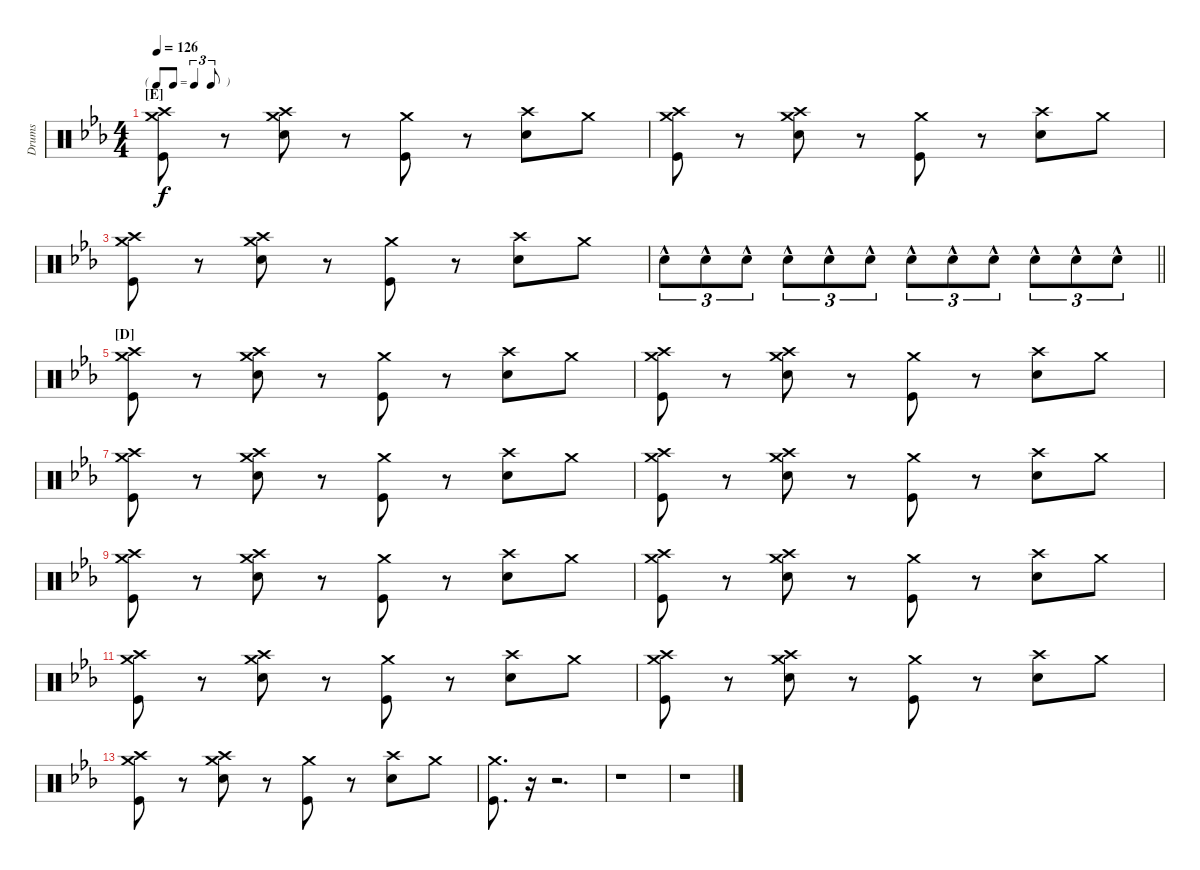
\bracketExtendMode nobrackets
\otherSystemsTrackNameOrientation horizontal
\defaultBarNumberDisplay FirstOfSystem
\track ("Drumkit" "Drums") {instrument percussion}
\staff {score}
\articulation defaults
\ts (4 4)
\tf triplet8th
\section ("E" "")
\tempo 126
\clef neutral
\ks cminor
("Kick (hit)" "Crash medium (hit)" "Crash high (hit)").8{dy f} r.8 ("Snare (hit) 2" "Crash medium (hit)" "Crash high (hit)").8 r.8 ("Kick (hit)" "Crash medium (hit)").8 r.8 ("Snare (hit) 2" "Crash high (hit)").8 "Crash medium (hit)".8 |
("Kick (hit)" "Crash medium (hit)" "Crash high (hit)").8 r.8 ("Snare (hit) 2" "Crash medium (hit)" "Crash high (hit)").8 r.8 ("Kick (hit)" "Crash medium (hit)").8 r.8 ("Snare (hit) 2" "Crash high (hit)").8 "Crash medium (hit)".8 |
("Kick (hit)" "Crash medium (hit)" "Crash high (hit)").8 r.8 ("Snare (hit) 2" "Crash medium (hit)" "Crash high (hit)").8 r.8 ("Kick (hit)" "Crash medium (hit)").8 r.8 ("Snare (hit) 2" "Crash high (hit)").8 "Crash medium (hit)".8 |
\barLineRight lightlight "Snare (hit) 2"{hac}.8{tu (3 2)} "Snare (hit) 2"{hac}.8{tu (3 2)} "Snare (hit) 2"{hac}.8{tu (3 2)} "Snare (hit) 2"{hac}.8{tu (3 2)} "Snare (hit) 2"{hac}.8{tu (3 2)} "Snare (hit) 2"{hac}.8{tu (3 2)} "Snare (hit) 2"{hac}.8{tu (3 2)} "Snare (hit) 2"{hac}.8{tu (3 2)} "Snare (hit) 2"{hac}.8{tu (3 2)} "Snare (hit) 2"{hac}.8{tu (3 2)} "Snare (hit) 2"{hac}.8{tu (3 2)} "Snare (hit) 2"{hac}.8{tu (3 2)}
|
\section ("D" "")
("Kick (hit)" "Crash medium (hit)" "Crash high (hit)").8 r.8 ("Snare (hit) 2" "Crash medium (hit)" "Crash high (hit)").8 r.8 ("Kick (hit)" "Crash medium (hit)").8 r.8 ("Snare (hit) 2" "Crash high (hit)").8 "Crash medium (hit)".8 |
("Kick (hit)" "Crash medium (hit)" "Crash high (hit)").8 r.8 ("Snare (hit) 2" "Crash medium (hit)" "Crash high (hit)").8 r.8 ("Kick (hit)" "Crash medium (hit)").8 r.8 ("Snare (hit) 2" "Crash high (hit)").8 "Crash medium (hit)".8 |
("Kick (hit)" "Crash medium (hit)" "Crash high (hit)").8 r.8 ("Snare (hit) 2" "Crash medium (hit)" "Crash high (hit)").8 r.8 ("Kick (hit)" "Crash medium (hit)").8 r.8 ("Snare (hit) 2" "Crash high (hit)").8 "Crash medium (hit)".8 |
("Kick (hit)" "Crash medium (hit)" "Crash high (hit)").8 r.8 ("Snare (hit) 2" "Crash medium (hit)" "Crash high (hit)").8 r.8 ("Kick (hit)" "Crash medium (hit)").8 r.8 ("Snare (hit) 2" "Crash high (hit)").8 "Crash medium (hit)".8 |
("Kick (hit)" "Crash medium (hit)" "Crash high (hit)").8 r.8 ("Snare (hit) 2" "Crash medium (hit)" "Crash high (hit)").8 r.8 ("Kick (hit)" "Crash medium (hit)").8 r.8 ("Snare (hit) 2" "Crash high (hit)").8 "Crash medium (hit)".8 |
("Kick (hit)" "Crash medium (hit)" "Crash high (hit)").8 r.8 ("Snare (hit) 2" "Crash medium (hit)" "Crash high (hit)").8 r.8 ("Kick (hit)" "Crash medium (hit)").8 r.8 ("Snare (hit) 2" "Crash high (hit)").8 "Crash medium (hit)".8 |
("Kick (hit)" "Crash medium (hit)" "Crash high (hit)").8 r.8 ("Snare (hit) 2" "Crash medium (hit)" "Crash high (hit)").8 r.8 ("Kick (hit)" "Crash medium (hit)").8 r.8 ("Snare (hit) 2" "Crash high (hit)").8 "Crash medium (hit)".8 |
("Kick (hit)" "Crash medium (hit)" "Crash high (hit)").8 r.8 ("Snare (hit) 2" "Crash medium (hit)" "Crash high (hit)").8 r.8 ("Kick (hit)" "Crash medium (hit)").8 r.8 ("Snare (hit) 2" "Crash high (hit)").8 "Crash medium (hit)".8 |
("Kick (hit)" "Crash medium (hit)" "Crash high (hit)").8 r.8 ("Snare (hit) 2" "Crash medium (hit)" "Crash high (hit)").8 r.8 ("Kick (hit)" "Crash medium (hit)").8 r.8 ("Snare (hit) 2" "Crash high (hit)").8 "Crash medium (hit)".8 |
("Kick (hit)" "Crash medium (hit)").8{d} r.16 r.2{d} |
r.1 |
r.1
